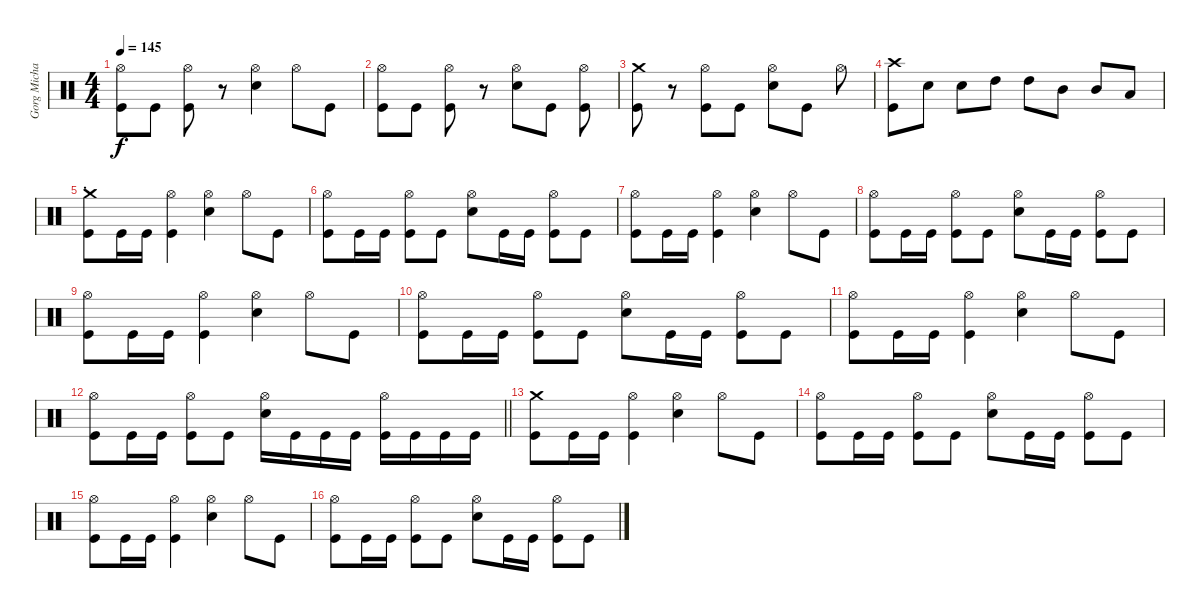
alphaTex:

\track ("Gorg Michael" "Gorg Micha") {instrument percussion}
\staff {score}
\articulation defaults
\ts (4 4)
\tempo 145
\clef neutral
\ks c
("Hi-Hat (open)" "Kick (hit)").8{dy f} "Kick (hit)".8 ("Hi-Hat (open)" "Kick (hit)").8 r.8 ("Hi-Hat (open)" "Snare (hit) 2").4 "Hi-Hat (open)".8 "Kick (hit)".8 |
("Hi-Hat (open)" "Kick (hit)").8 "Kick (hit)".8 ("Hi-Hat (open)" "Kick (hit)").8 r.8 ("Hi-Hat (open)" "Snare (hit) 2").8 "Kick (hit)".8 ("Hi-Hat (open)" "Kick (hit)").8 |
("Crash medium (hit)" "Kick (hit)").8 r.8 ("Hi-Hat (open)" "Kick (hit)").8 "Kick (hit)".8 ("Hi-Hat (open)" "Snare (hit) 2").8 "Kick (hit)".8 "Hi-Hat (open)".8 |
("Crash high (hit)" "Kick (hit)").8 "Snare (hit) 2".8 "Snare (hit) 2".8 "High Tom (hit)".8 "High Tom (hit)".8 "Mid Tom (hit)".8 "Mid Tom (hit)".8 "Low Tom (hit)".8 |
\section ("" ".")
("Crash medium (hit)" "Kick (hit)").8 "Kick (hit)".16 "Kick (hit)".16 ("Hi-Hat (open)" "Kick (hit)").4 ("Hi-Hat (open)" "Snare (hit) 2").4 "Hi-Hat (open)".8 "Kick (hit)".8 |
("Hi-Hat (open)" "Kick (hit)").8 "Kick (hit)".16 "Kick (hit)".16 ("Hi-Hat (open)" "Kick (hit)").8 "Kick (hit)".8 ("Hi-Hat (open)" "Snare (hit) 2").8 "Kick (hit)".16 "Kick (hit)".16 ("Hi-Hat (open)" "Kick (hit)").8 "Kick (hit)".8 |
("Hi-Hat (open)" "Kick (hit)").8 "Kick (hit)".16 "Kick (hit)".16 ("Hi-Hat (open)" "Kick (hit)").4 ("Hi-Hat (open)" "Snare (hit) 2").4 "Hi-Hat (open)".8 "Kick (hit)".8 |
("Hi-Hat (open)" "Kick (hit)").8 "Kick (hit)".16 "Kick (hit)".16 ("Hi-Hat (open)" "Kick (hit)").8 "Kick (hit)".8 ("Hi-Hat (open)" "Snare (hit) 2").8 "Kick (hit)".16 "Kick (hit)".16 ("Hi-Hat (open)" "Kick (hit)").8 "Kick (hit)".8 |
("Hi-Hat (open)" "Kick (hit)").8 "Kick (hit)".16 "Kick (hit)".16 ("Hi-Hat (open)" "Kick (hit)").4 ("Hi-Hat (open)" "Snare (hit) 2").4 "Hi-Hat (open)".8 "Kick (hit)".8 |
("Hi-Hat (open)" "Kick (hit)").8 "Kick (hit)".16 "Kick (hit)".16 ("Hi-Hat (open)" "Kick (hit)").8 "Kick (hit)".8 ("Hi-Hat (open)" "Snare (hit) 2").8 "Kick (hit)".16 "Kick (hit)".16 ("Hi-Hat (open)" "Kick (hit)").8 "Kick (hit)".8 |
("Hi-Hat (open)" "Kick (hit)").8 "Kick (hit)".16 "Kick (hit)".16 ("Hi-Hat (open)" "Kick (hit)").4 ("Hi-Hat (open)" "Snare (hit) 2").4 "Hi-Hat (open)".8 "Kick (hit)".8 |
\barLineRight lightlight
("Hi-Hat (open)" "Kick (hit)").8 "Kick (hit)".16 "Kick (hit)".16 ("Hi-Hat (open)" "Kick (hit)").8 "Kick (hit)".8 ("Hi-Hat (open)" "Snare (hit) 2").16 "Kick (hit)".16 "Kick (hit)".16 "Kick (hit)".16 ("Hi-Hat (open)" "Kick (hit)").16 "Kick (hit)".16 "Kick (hit)".16 "Kick (hit)".16 |
("Crash medium (hit)" "Kick (hit)").8 "Kick (hit)".16 "Kick (hit)".16 ("Hi-Hat (open)" "Kick (hit)").4 ("Hi-Hat (open)" "Snare (hit) 2").4 "Hi-Hat (open)".8 "Kick (hit)".8 |
("Hi-Hat (open)" "Kick (hit)").8 "Kick (hit)".16 "Kick (hit)".16 ("Hi-Hat (open)" "Kick (hit)").8 "Kick (hit)".8 ("Hi-Hat (open)" "Snare (hit) 2").8 "Kick (hit)".16 "Kick (hit)".16 ("Hi-Hat (open)" "Kick (hit)").8 "Kick (hit)".8 |
("Hi-Hat (open)" "Kick (hit)").8 "Kick (hit)".16 "Kick (hit)".16 ("Hi-Hat (open)" "Kick (hit)").4 ("Hi-Hat (open)" "Snare (hit) 2").4 "Hi-Hat (open)".8 "Kick (hit)".8 |
("Hi-Hat (open)" "Kick (hit)").8 "Kick (hit)".16 "Kick (hit)".16 ("Hi-Hat (open)" "Kick (hit)").8 "Kick (hit)".8 ("Hi-Hat (open)" "Snare (hit) 2").8 "Kick (hit)".16 "Kick (hit)".16 ("Hi-Hat (open)" "Kick (hit)").8 "Kick (hit)".8
